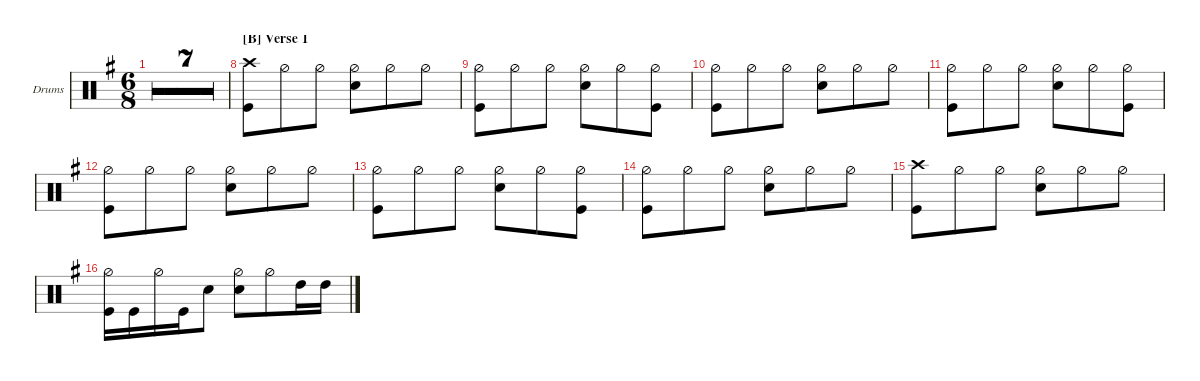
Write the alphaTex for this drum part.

\hideDynamics
\bracketExtendMode groupsimilarinstruments
\firstSystemTrackNameOrientation horizontal
\otherSystemsTrackNameOrientation horizontal
\track ("Drumkit" "Drums") {multiBarRest instrument percussion}
\staff {score}
\articulation defaults
\ts (6 8)
\tempo 69
\clef neutral
\scale 0
\ks g
r.2{dy f} r.4 |
\scale 0
r.2 r.4 |
\scale 0
r.2 r.4 |
\scale 0
r.2 r.4 |
\scale 0
r.2 r.4 |
\scale 0
r.2 r.4 |
\scale 0
r.2 r.4 |
\section ("B" "Verse 1")
("Crash high (hit)" "Kick (hit)").8 "Hi-Hat (half)".8 "Hi-Hat (half)".8 ("Hi-Hat (half)" "Snare (hit) 2").8 "Hi-Hat (half)".8 "Hi-Hat (half)".8 |
("Hi-Hat (half)" "Kick (hit)").8 "Hi-Hat (half)".8 "Hi-Hat (half)".8 ("Hi-Hat (half)" "Snare (hit) 2").8 "Hi-Hat (half)".8 ("Hi-Hat (half)" "Kick (hit)").8 |
("Hi-Hat (half)" "Kick (hit)").8 "Hi-Hat (half)".8 "Hi-Hat (half)".8 ("Hi-Hat (half)" "Snare (hit) 2").8 "Hi-Hat (half)".8 "Hi-Hat (half)".8 |
("Kick (hit)" "Hi-Hat (half)").8 "Hi-Hat (half)".8 "Hi-Hat (half)".8 ("Hi-Hat (half)" "Snare (hit) 2").8 "Hi-Hat (half)".8 ("Hi-Hat (half)" "Kick (hit)").8 |
("Hi-Hat (half)" "Kick (hit)").8 "Hi-Hat (half)".8 "Hi-Hat (half)".8 ("Hi-Hat (half)" "Snare (hit) 2").8 "Hi-Hat (half)".8 "Hi-Hat (half)".8 |
("Hi-Hat (half)" "Kick (hit)").8 "Hi-Hat (half)".8 "Hi-Hat (half)".8 ("Hi-Hat (half)" "Snare (hit) 2").8 "Hi-Hat (half)".8 ("Hi-Hat (half)" "Kick (hit)").8 |
("Hi-Hat (half)" "Kick (hit)").8 "Hi-Hat (half)".8 "Hi-Hat (half)".8 ("Hi-Hat (half)" "Snare (hit) 2").8 "Hi-Hat (half)".8 "Hi-Hat (half)".8 |
("Crash high (hit)" "Kick (hit)").8 "Hi-Hat (half)".8 "Hi-Hat (half)".8 ("Hi-Hat (half)" "Snare (hit) 2").8 "Hi-Hat (half)".8 "Hi-Hat (half)".8 |
("Hi-Hat (half)" "Kick (hit)").16 "Kick (hit)".16 "Hi-Hat (half)".16 "Kick (hit)".16 "Snare (hit) 2".8 ("Snare (hit) 2" "Hi-Hat (half)").8 "Hi-Hat (half)".8 "High Tom (hit)".16 "High Tom (hit)".16
